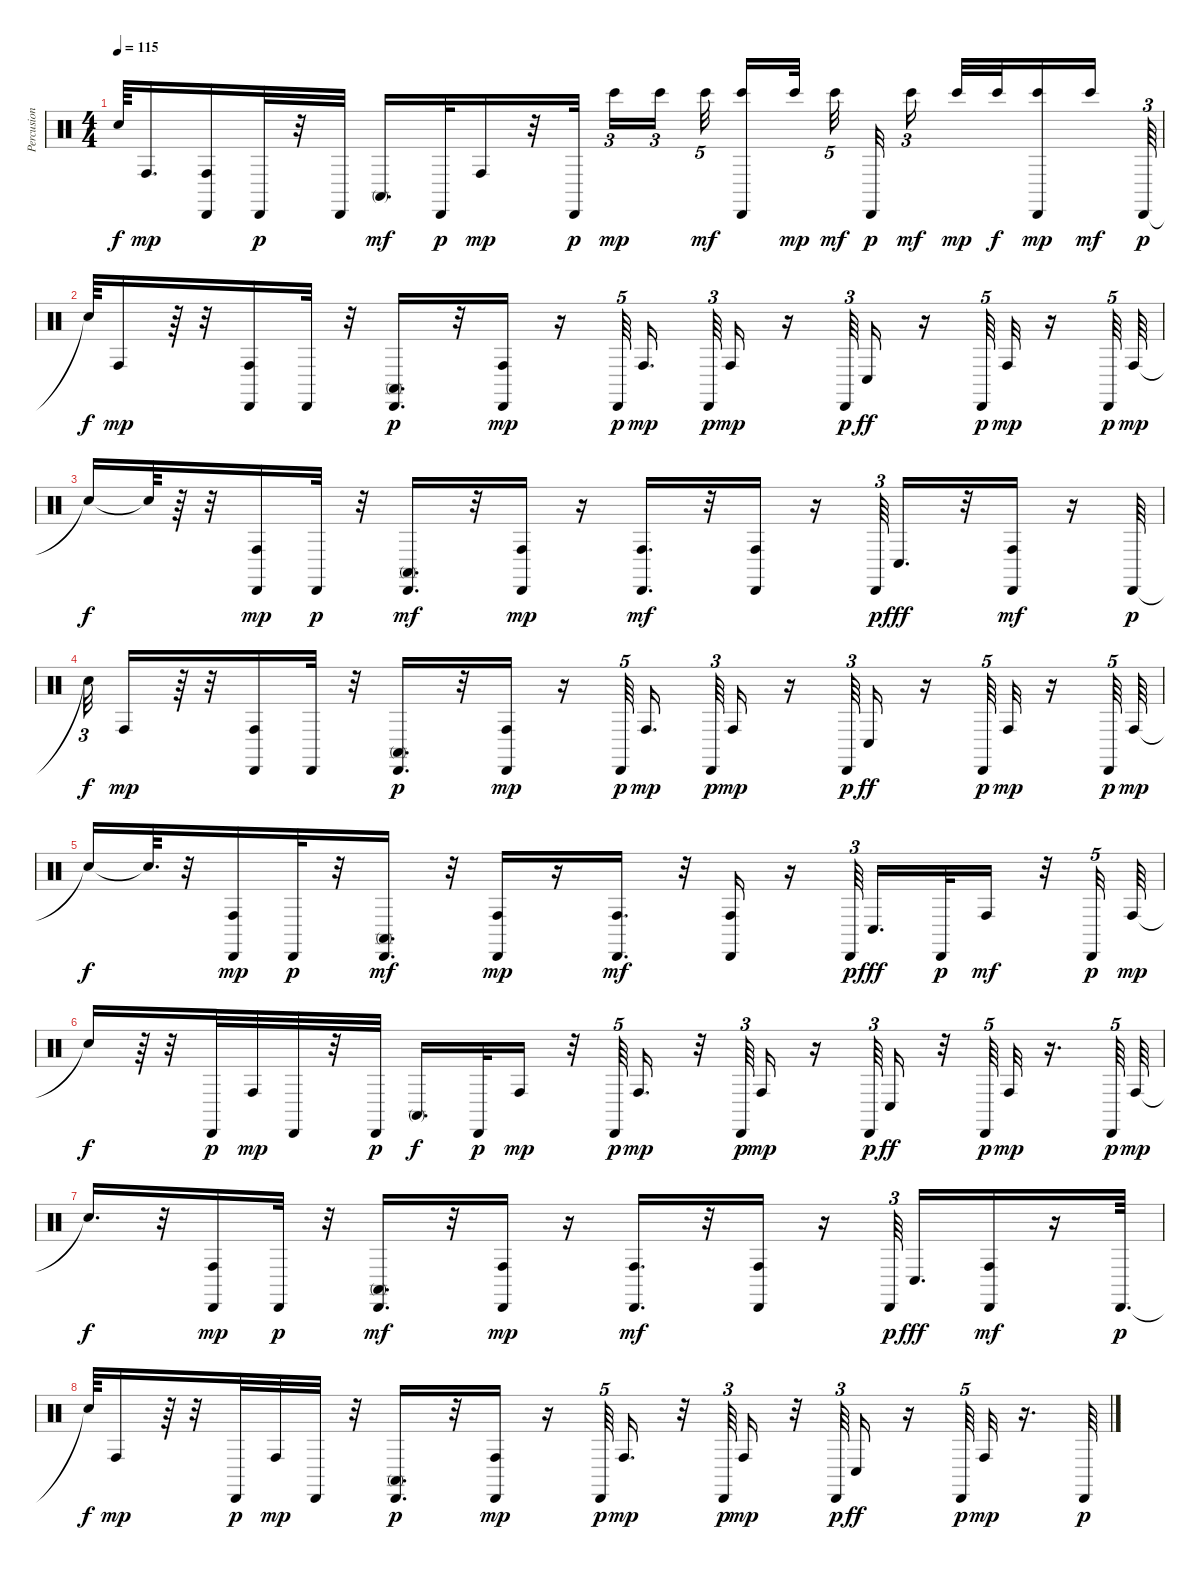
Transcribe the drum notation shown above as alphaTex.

\track ("Percusion" "Percusion") {instrument percussion}
\staff {score}
\articulation defaults
\ts (4 4)
\tempo 115
\clef neutral
\ks c "Snare (hit)"{t}.64{dy f} "Conga high (hit)".16{d dy mp}
("Cabasa (hit)" "Conga high (hit)").16 "Cabasa (hit)".32{dy p} r.32 "Cabasa (hit)".32 "Conga high (mute)".16{d dy mf} "Cabasa (hit)".32{dy p} "Conga high (hit)".16{dy mp} r.32 "Cabasa (hit)".32{dy p} "Bongo High (hit)".16{tu (3 2) dy mp} "Bongo High (hit)".16{tu (3 2)} "Bongo High (hit)".32{tu (5 4) dy mf beam splitsecondary} ("Cabasa (hit)" "Bongo High (hit)").16 "Bongo High (hit)".32{dy mp beam splitsecondary} "Bongo High (hit)".32{tu (5 4) dy mf} "Cabasa (hit)".32{dy p} "Bongo High (hit)".16{tu (3 2) dy mf beam splitsecondary} "Bongo High (hit)".32{dy mp} "Bongo High (hit)".32{dy f} ("Cabasa (hit)" "Bongo High (hit)").16{dy mp} "Bongo High (hit)".16{dy mf} "Cabasa (hit)".64{tu (3 2) dy p} |
"Snare (hit)"{t}.64{dy f} "Conga high (hit)".16{dy mp} r.64 r.32 ("Cabasa (hit)" "Conga high (hit)").16 "Cabasa (hit)".32 r.32 ("Cabasa (hit)" "Conga high (mute)").16{d dy p} r.32 ("Cabasa (hit)" "Conga high (hit)").16{dy mp} r.16 "Cabasa (hit)".64{tu (5 4) dy p beam splitsecondary} "Conga high (hit)".16{d dy mp beam splitsecondary} "Cabasa (hit)".64{tu (3 2) dy p} "Conga high (hit)".16{dy mp} r.16 "Cabasa (hit)".64{tu (3 2) dy p} "Conga low (hit)".16{dy ff} r.16 "Cabasa (hit)".64{tu (5 4) dy p} "Conga high (hit)".32{dy mp} r.16 "Cabasa (hit)".64{tu (5 4) dy p} "Conga high (hit)".64{dy mp} |
"Snare (hit)"{t}.16{dy f} "Snare (hit)"{t}.64 r.64 r.32 ("Cabasa (hit)" "Conga high (hit)").16{dy mp} "Cabasa (hit)".32{dy p} r.32 ("Cabasa (hit)" "Conga high (mute)").16{d dy mf} r.32 ("Cabasa (hit)" "Conga high (hit)").16{dy mp} r.16 ("Cabasa (hit)" "Conga high (hit)").16{d dy mf} r.32 ("Cabasa (hit)" "Conga high (hit)").16 r.16 "Cabasa (hit)".64{tu (3 2) dy p} "Conga low (hit)".16{d dy fff} r.32 ("Cabasa (hit)" "Conga high (hit)").16{dy mf} r.16 "Cabasa (hit)".64{dy p} |
"Snare (hit)"{t}.32{tu (3 2) dy f} "Conga high (hit)".16{dy mp} r.64 r.32 ("Cabasa (hit)" "Conga high (hit)").16 "Cabasa (hit)".32 r.32 ("Cabasa (hit)" "Conga high (mute)").16{d dy p} r.32 ("Cabasa (hit)" "Conga high (hit)").16{dy mp} r.16 "Cabasa (hit)".64{tu (5 4) dy p beam splitsecondary} "Conga high (hit)".16{d dy mp beam splitsecondary} "Cabasa (hit)".64{tu (3 2) dy p} "Conga high (hit)".16{dy mp} r.16 "Cabasa (hit)".64{tu (3 2) dy p} "Conga low (hit)".16{dy ff} r.16 "Cabasa (hit)".64{tu (5 4) dy p} "Conga high (hit)".32{dy mp} r.16 "Cabasa (hit)".64{tu (5 4) dy p} "Conga high (hit)".64{dy mp} |
"Snare (hit)"{t}.16{dy f} "Snare (hit)"{t}.64{d} r.32 ("Cabasa (hit)" "Conga high (hit)").16{dy mp} "Cabasa (hit)".32{dy p} r.32 ("Cabasa (hit)" "Conga high (mute)").16{d dy mf} r.32 ("Cabasa (hit)" "Conga high (hit)").16{dy mp} r.16 ("Cabasa (hit)" "Conga high (hit)").16{d dy mf} r.32 ("Cabasa (hit)" "Conga high (hit)").16 r.16 "Cabasa (hit)".64{tu (3 2) dy p} "Conga low (hit)".16{d dy fff} "Cabasa (hit)".32{dy p} "Conga high (hit)".16{dy mf} r.32 "Cabasa (hit)".32{tu (5 4) dy p} "Conga high (hit)".64{dy mp} |
"Snare (hit)"{t}.16{dy f} r.64 r.32 "Cabasa (hit)".32{dy p} "Conga high (hit)".32{dy mp} "Cabasa (hit)".32 r.32 "Cabasa (hit)".32{dy p} "Conga high (mute)".16{d dy f} "Cabasa (hit)".32{dy p} "Conga high (hit)".16{dy mp} r.32 "Cabasa (hit)".64{tu (5 4) dy p} "Conga high (hit)".16{d dy mp} r.32 "Cabasa (hit)".64{tu (3 2) dy p} "Conga high (hit)".16{dy mp} r.16 "Cabasa (hit)".64{tu (3 2) dy p} "Conga low (hit)".16{dy ff} r.32 "Cabasa (hit)".64{tu (5 4) dy p} "Conga high (hit)".32{dy mp} r.16{d} "Cabasa (hit)".64{tu (5 4) dy p} "Conga high (hit)".64{dy mp} |
"Snare (hit)"{t}.16{d dy f} r.32 ("Cabasa (hit)" "Conga high (hit)").16{dy mp} "Cabasa (hit)".32{dy p} r.32 ("Cabasa (hit)" "Conga high (mute)").16{d dy mf} r.32 ("Cabasa (hit)" "Conga high (hit)").16{dy mp} r.16 ("Cabasa (hit)" "Conga high (hit)").16{d dy mf} r.32 ("Cabasa (hit)" "Conga high (hit)").16 r.16 "Cabasa (hit)".64{tu (3 2) dy p beam splitsecondary} "Conga low (hit)".16{d dy fff} ("Cabasa (hit)" "Conga high (hit)").16{dy mf} r.16 "Cabasa (hit)".64{d dy p} |
"Snare (hit)"{t}.64{dy f} "Conga high (hit)".16{dy mp} r.64 r.32 "Cabasa (hit)".32{dy p} "Conga high (hit)".32{dy mp} "Cabasa (hit)".32 r.32 ("Cabasa (hit)" "Conga high (mute)").16{d dy p} r.32 ("Cabasa (hit)" "Conga high (hit)").16{dy mp} r.16 "Cabasa (hit)".64{tu (5 4) dy p} "Conga high (hit)".16{d dy mp} r.32 "Cabasa (hit)".64{tu (3 2) dy p} "Conga high (hit)".16{dy mp} r.32 "Cabasa (hit)".64{tu (3 2) dy p} "Conga low (hit)".16{dy ff} r.16 "Cabasa (hit)".64{tu (5 4) dy p} "Conga high (hit)".32{dy mp} r.16{d} "Cabasa (hit)".64{dy p}
